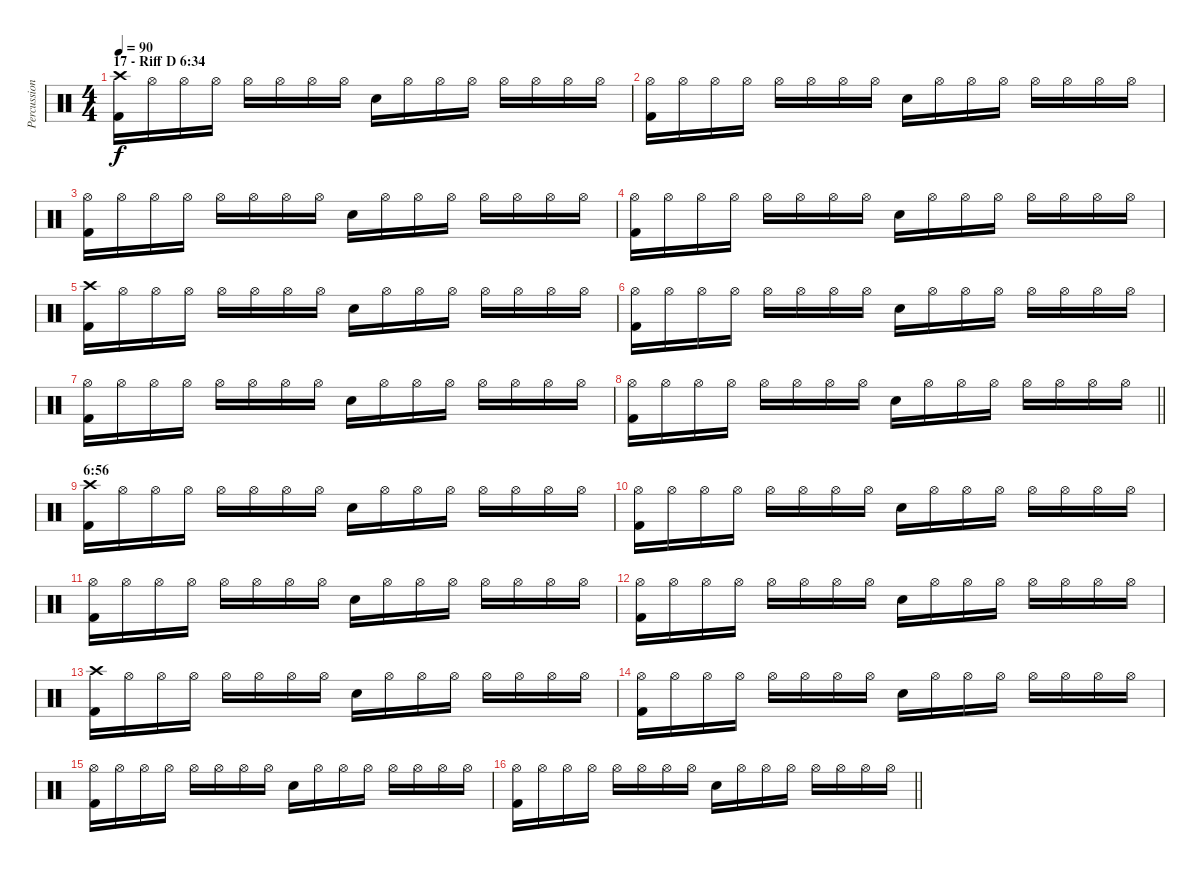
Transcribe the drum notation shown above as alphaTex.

\track ("Percussion" "Percussion") {instrument percussion}
\staff {score}
\articulation defaults
\ts (4 4)
\section ("" "17 - Riff D 6:34")
\tempo 90
\clef neutral
\ks c
("Crash high (hit)" "Kick (hit) 2").16{dy f} "Hi-Hat (open)".16 "Hi-Hat (open)".16 "Hi-Hat (open)".16 "Hi-Hat (open)".16 "Hi-Hat (open)".16 "Hi-Hat (open)".16 "Hi-Hat (open)".16 "Snare (hit) 2".16 "Hi-Hat (open)".16 "Hi-Hat (open)".16 "Hi-Hat (open)".16 "Hi-Hat (open)".16 "Hi-Hat (open)".16 "Hi-Hat (open)".16 "Hi-Hat (open)".16 |
("Hi-Hat (open)" "Kick (hit) 2").16 "Hi-Hat (open)".16 "Hi-Hat (open)".16 "Hi-Hat (open)".16 "Hi-Hat (open)".16 "Hi-Hat (open)".16 "Hi-Hat (open)".16 "Hi-Hat (open)".16 "Snare (hit) 2".16 "Hi-Hat (open)".16 "Hi-Hat (open)".16 "Hi-Hat (open)".16 "Hi-Hat (open)".16 "Hi-Hat (open)".16 "Hi-Hat (open)".16 "Hi-Hat (open)".16 |
("Hi-Hat (open)" "Kick (hit) 2").16 "Hi-Hat (open)".16 "Hi-Hat (open)".16 "Hi-Hat (open)".16 "Hi-Hat (open)".16 "Hi-Hat (open)".16 "Hi-Hat (open)".16 "Hi-Hat (open)".16 "Snare (hit) 2".16 "Hi-Hat (open)".16 "Hi-Hat (open)".16 "Hi-Hat (open)".16 "Hi-Hat (open)".16 "Hi-Hat (open)".16 "Hi-Hat (open)".16 "Hi-Hat (open)".16 |
("Hi-Hat (open)" "Kick (hit) 2").16 "Hi-Hat (open)".16 "Hi-Hat (open)".16 "Hi-Hat (open)".16 "Hi-Hat (open)".16 "Hi-Hat (open)".16 "Hi-Hat (open)".16 "Hi-Hat (open)".16 "Snare (hit) 2".16 "Hi-Hat (open)".16 "Hi-Hat (open)".16 "Hi-Hat (open)".16 "Hi-Hat (open)".16 "Hi-Hat (open)".16 "Hi-Hat (open)".16 "Hi-Hat (open)".16 |
("Crash high (hit)" "Kick (hit) 2").16 "Hi-Hat (open)".16 "Hi-Hat (open)".16 "Hi-Hat (open)".16 "Hi-Hat (open)".16 "Hi-Hat (open)".16 "Hi-Hat (open)".16 "Hi-Hat (open)".16 "Snare (hit) 2".16 "Hi-Hat (open)".16 "Hi-Hat (open)".16 "Hi-Hat (open)".16 "Hi-Hat (open)".16 "Hi-Hat (open)".16 "Hi-Hat (open)".16 "Hi-Hat (open)".16 |
("Hi-Hat (open)" "Kick (hit) 2").16 "Hi-Hat (open)".16 "Hi-Hat (open)".16 "Hi-Hat (open)".16 "Hi-Hat (open)".16 "Hi-Hat (open)".16 "Hi-Hat (open)".16 "Hi-Hat (open)".16 "Snare (hit) 2".16 "Hi-Hat (open)".16 "Hi-Hat (open)".16 "Hi-Hat (open)".16 "Hi-Hat (open)".16 "Hi-Hat (open)".16 "Hi-Hat (open)".16 "Hi-Hat (open)".16 |
("Hi-Hat (open)" "Kick (hit) 2").16 "Hi-Hat (open)".16 "Hi-Hat (open)".16 "Hi-Hat (open)".16 "Hi-Hat (open)".16 "Hi-Hat (open)".16 "Hi-Hat (open)".16 "Hi-Hat (open)".16 "Snare (hit) 2".16 "Hi-Hat (open)".16 "Hi-Hat (open)".16 "Hi-Hat (open)".16 "Hi-Hat (open)".16 "Hi-Hat (open)".16 "Hi-Hat (open)".16 "Hi-Hat (open)".16 |
\barLineRight lightlight
("Hi-Hat (open)" "Kick (hit) 2").16 "Hi-Hat (open)".16 "Hi-Hat (open)".16 "Hi-Hat (open)".16 "Hi-Hat (open)".16 "Hi-Hat (open)".16 "Hi-Hat (open)".16 "Hi-Hat (open)".16 "Snare (hit) 2".16 "Hi-Hat (open)".16 "Hi-Hat (open)".16 "Hi-Hat (open)".16 "Hi-Hat (open)".16 "Hi-Hat (open)".16 "Hi-Hat (open)".16 "Hi-Hat (open)".16 |
\section ("" "6:56")
("Crash high (hit)" "Kick (hit) 2").16 "Hi-Hat (open)".16 "Hi-Hat (open)".16 "Hi-Hat (open)".16 "Hi-Hat (open)".16 "Hi-Hat (open)".16 "Hi-Hat (open)".16 "Hi-Hat (open)".16 "Snare (hit) 2".16 "Hi-Hat (open)".16 "Hi-Hat (open)".16 "Hi-Hat (open)".16 "Hi-Hat (open)".16 "Hi-Hat (open)".16 "Hi-Hat (open)".16 "Hi-Hat (open)".16 |
("Hi-Hat (open)" "Kick (hit) 2").16 "Hi-Hat (open)".16 "Hi-Hat (open)".16 "Hi-Hat (open)".16 "Hi-Hat (open)".16 "Hi-Hat (open)".16 "Hi-Hat (open)".16 "Hi-Hat (open)".16 "Snare (hit) 2".16 "Hi-Hat (open)".16 "Hi-Hat (open)".16 "Hi-Hat (open)".16 "Hi-Hat (open)".16 "Hi-Hat (open)".16 "Hi-Hat (open)".16 "Hi-Hat (open)".16 |
("Hi-Hat (open)" "Kick (hit) 2").16 "Hi-Hat (open)".16 "Hi-Hat (open)".16 "Hi-Hat (open)".16 "Hi-Hat (open)".16 "Hi-Hat (open)".16 "Hi-Hat (open)".16 "Hi-Hat (open)".16 "Snare (hit) 2".16 "Hi-Hat (open)".16 "Hi-Hat (open)".16 "Hi-Hat (open)".16 "Hi-Hat (open)".16 "Hi-Hat (open)".16 "Hi-Hat (open)".16 "Hi-Hat (open)".16 |
("Hi-Hat (open)" "Kick (hit) 2").16 "Hi-Hat (open)".16 "Hi-Hat (open)".16 "Hi-Hat (open)".16 "Hi-Hat (open)".16 "Hi-Hat (open)".16 "Hi-Hat (open)".16 "Hi-Hat (open)".16 "Snare (hit) 2".16 "Hi-Hat (open)".16 "Hi-Hat (open)".16 "Hi-Hat (open)".16 "Hi-Hat (open)".16 "Hi-Hat (open)".16 "Hi-Hat (open)".16 "Hi-Hat (open)".16 |
("Crash high (hit)" "Kick (hit) 2").16 "Hi-Hat (open)".16 "Hi-Hat (open)".16 "Hi-Hat (open)".16 "Hi-Hat (open)".16 "Hi-Hat (open)".16 "Hi-Hat (open)".16 "Hi-Hat (open)".16 "Snare (hit) 2".16 "Hi-Hat (open)".16 "Hi-Hat (open)".16 "Hi-Hat (open)".16 "Hi-Hat (open)".16 "Hi-Hat (open)".16 "Hi-Hat (open)".16 "Hi-Hat (open)".16 |
("Hi-Hat (open)" "Kick (hit) 2").16 "Hi-Hat (open)".16 "Hi-Hat (open)".16 "Hi-Hat (open)".16 "Hi-Hat (open)".16 "Hi-Hat (open)".16 "Hi-Hat (open)".16 "Hi-Hat (open)".16 "Snare (hit) 2".16 "Hi-Hat (open)".16 "Hi-Hat (open)".16 "Hi-Hat (open)".16 "Hi-Hat (open)".16 "Hi-Hat (open)".16 "Hi-Hat (open)".16 "Hi-Hat (open)".16 |
("Hi-Hat (open)" "Kick (hit) 2").16 "Hi-Hat (open)".16 "Hi-Hat (open)".16 "Hi-Hat (open)".16 "Hi-Hat (open)".16 "Hi-Hat (open)".16 "Hi-Hat (open)".16 "Hi-Hat (open)".16 "Snare (hit) 2".16 "Hi-Hat (open)".16 "Hi-Hat (open)".16 "Hi-Hat (open)".16 "Hi-Hat (open)".16 "Hi-Hat (open)".16 "Hi-Hat (open)".16 "Hi-Hat (open)".16 |
\barLineRight lightlight
("Hi-Hat (open)" "Kick (hit) 2").16 "Hi-Hat (open)".16 "Hi-Hat (open)".16 "Hi-Hat (open)".16 "Hi-Hat (open)".16 "Hi-Hat (open)".16 "Hi-Hat (open)".16 "Hi-Hat (open)".16 "Snare (hit) 2".16 "Hi-Hat (open)".16 "Hi-Hat (open)".16 "Hi-Hat (open)".16 "Hi-Hat (open)".16 "Hi-Hat (open)".16 "Hi-Hat (open)".16 "Hi-Hat (open)".16
